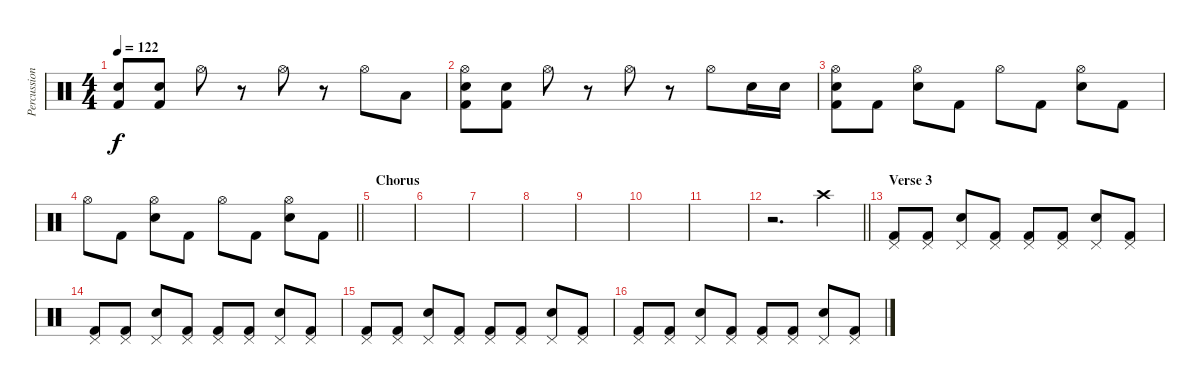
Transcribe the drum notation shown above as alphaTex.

\track ("Percussion" "Percussion") {instrument percussion}
\staff {score}
\articulation defaults
\ts (4 4)
\tempo 122
\clef neutral
\ks c
("Snare (hit) 2" "Kick (hit) 2").8{dy f} ("Snare (hit) 2" "Kick (hit) 2").8 "Hi-Hat (open)".8 r.8 "Hi-Hat (open)".8 r.8 "Hi-Hat (open)".8 "Low Tom (hit)".8 |
("Hi-Hat (open)" "Snare (hit) 2" "Kick (hit) 2").8 ("Snare (hit) 2" "Kick (hit) 2").8 "Hi-Hat (open)".8 r.8 "Hi-Hat (open)".8 r.8 "Hi-Hat (open)".8 "Snare (hit) 2".16 "Snare (hit) 2".16 |
("Hi-Hat (open)" "Snare (hit) 2" "Kick (hit) 2").8 "Kick (hit) 2".8 ("Hi-Hat (open)" "Snare (hit) 2").8 "Kick (hit) 2".8 "Hi-Hat (open)".8 "Kick (hit) 2".8 ("Hi-Hat (open)" "Snare (hit) 2").8 "Kick (hit) 2".8 |
\barLineRight lightlight "Hi-Hat (open)".8 "Kick (hit) 2".8
("Hi-Hat (open)" "Snare (hit) 2").8 "Kick (hit) 2".8 "Hi-Hat (open)".8 "Kick (hit) 2".8 ("Hi-Hat (open)" "Snare (hit) 2").8 "Kick (hit) 2".8 |
\section ("" "Chorus")
|
|
|
|
|
|
|
\barLineRight lightlight
r.2{d} "Crash high (hit)".4 |
\section ("" "Verse 3")
("Pedal Hi-Hat (hit)" "Kick (hit) 2").8 ("Pedal Hi-Hat (hit)" "Kick (hit) 2").8 ("Pedal Hi-Hat (hit)" "Snare (hit) 2").8 ("Pedal Hi-Hat (hit)" "Kick (hit) 2").8 ("Pedal Hi-Hat (hit)" "Kick (hit) 2").8 ("Pedal Hi-Hat (hit)" "Kick (hit) 2").8 ("Pedal Hi-Hat (hit)" "Snare (hit) 2").8 ("Pedal Hi-Hat (hit)" "Kick (hit) 2").8 |
("Pedal Hi-Hat (hit)" "Kick (hit) 2").8 ("Pedal Hi-Hat (hit)" "Kick (hit) 2").8 ("Pedal Hi-Hat (hit)" "Snare (hit) 2").8 ("Pedal Hi-Hat (hit)" "Kick (hit) 2").8 ("Pedal Hi-Hat (hit)" "Kick (hit) 2").8 ("Pedal Hi-Hat (hit)" "Kick (hit) 2").8 ("Pedal Hi-Hat (hit)" "Snare (hit) 2").8 ("Pedal Hi-Hat (hit)" "Kick (hit) 2").8 |
("Pedal Hi-Hat (hit)" "Kick (hit) 2").8 ("Pedal Hi-Hat (hit)" "Kick (hit) 2").8 ("Pedal Hi-Hat (hit)" "Snare (hit) 2").8 ("Pedal Hi-Hat (hit)" "Kick (hit) 2").8 ("Pedal Hi-Hat (hit)" "Kick (hit) 2").8 ("Pedal Hi-Hat (hit)" "Kick (hit) 2").8 ("Pedal Hi-Hat (hit)" "Snare (hit) 2").8 ("Pedal Hi-Hat (hit)" "Kick (hit) 2").8 |
("Pedal Hi-Hat (hit)" "Kick (hit) 2").8 ("Pedal Hi-Hat (hit)" "Kick (hit) 2").8 ("Pedal Hi-Hat (hit)" "Snare (hit) 2").8 ("Pedal Hi-Hat (hit)" "Kick (hit) 2").8 ("Pedal Hi-Hat (hit)" "Kick (hit) 2").8 ("Pedal Hi-Hat (hit)" "Kick (hit) 2").8 ("Pedal Hi-Hat (hit)" "Snare (hit) 2").8 ("Pedal Hi-Hat (hit)" "Kick (hit) 2").8
